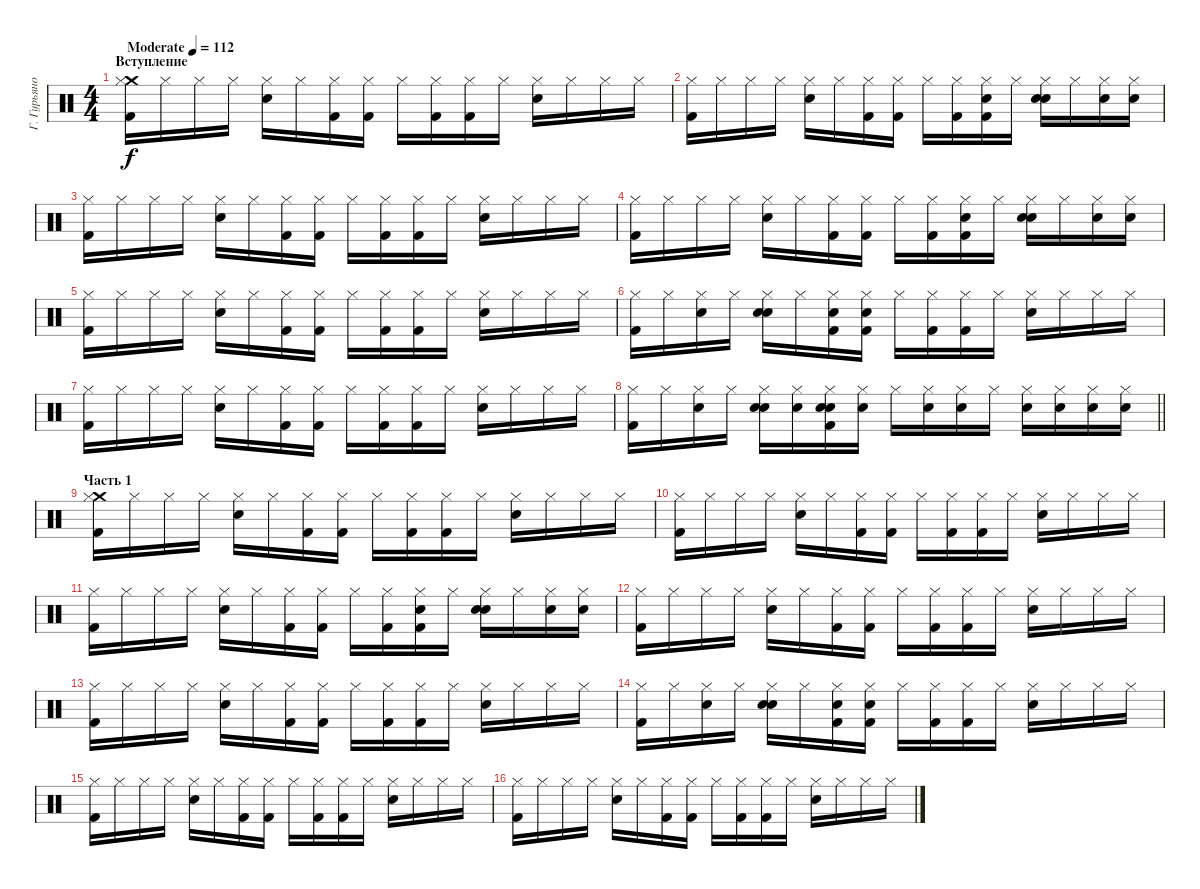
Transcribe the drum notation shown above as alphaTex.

\track ("Г. Гурьянов" "Г. Гурьяно") {instrument percussion}
\staff {score}
\articulation defaults
\ts (4 4)
\section ("" "Вступление")
\tempo (112 "Moderate")
\clef neutral
\ks c
("Kick (hit) 2" "Crash medium (hit)" "Hi-Hat (closed)").16{dy f} "Hi-Hat (closed)".16 "Hi-Hat (closed)".16 "Hi-Hat (closed)".16 ("Snare (hit) 2" "Hi-Hat (closed)").16 "Hi-Hat (closed)".16 ("Kick (hit) 2" "Hi-Hat (closed)").16 ("Kick (hit) 2" "Hi-Hat (closed)").16 "Hi-Hat (closed)".16 ("Kick (hit) 2" "Hi-Hat (closed)").16 ("Kick (hit) 2" "Hi-Hat (closed)").16 "Hi-Hat (closed)".16 ("Snare (hit) 2" "Hi-Hat (closed)").16 "Hi-Hat (closed)".16 "Hi-Hat (closed)".16 "Hi-Hat (closed)".16 |
("Kick (hit) 2" "Hi-Hat (closed)").16 "Hi-Hat (closed)".16 "Hi-Hat (closed)".16 "Hi-Hat (closed)".16 ("Snare (hit) 2" "Hi-Hat (closed)").16 "Hi-Hat (closed)".16 ("Kick (hit) 2" "Hi-Hat (closed)").16 ("Kick (hit) 2" "Hi-Hat (closed)").16 "Hi-Hat (closed)".16 ("Kick (hit) 2" "Hi-Hat (closed)").16 ("Kick (hit) 2" "Hand Clap (hit)" "Hi-Hat (closed)").16 "Hi-Hat (closed)".16 ("Snare (hit) 2" "Hand Clap (hit)" "Hi-Hat (closed)").16 "Hi-Hat (closed)".16 ("Hand Clap (hit)" "Hi-Hat (closed)").16 ("Hand Clap (hit)" "Hi-Hat (closed)").16 |
("Kick (hit) 2" "Hi-Hat (closed)").16 "Hi-Hat (closed)".16 "Hi-Hat (closed)".16 "Hi-Hat (closed)".16 ("Snare (hit) 2" "Hi-Hat (closed)").16 "Hi-Hat (closed)".16 ("Kick (hit) 2" "Hi-Hat (closed)").16 ("Kick (hit) 2" "Hi-Hat (closed)").16 "Hi-Hat (closed)".16 ("Kick (hit) 2" "Hi-Hat (closed)").16 ("Kick (hit) 2" "Hi-Hat (closed)").16 "Hi-Hat (closed)".16 ("Snare (hit) 2" "Hi-Hat (closed)").16 "Hi-Hat (closed)".16 "Hi-Hat (closed)".16 "Hi-Hat (closed)".16 |
("Kick (hit) 2" "Hi-Hat (closed)").16 "Hi-Hat (closed)".16 "Hi-Hat (closed)".16 "Hi-Hat (closed)".16 ("Snare (hit) 2" "Hi-Hat (closed)").16 "Hi-Hat (closed)".16 ("Kick (hit) 2" "Hi-Hat (closed)").16 ("Kick (hit) 2" "Hi-Hat (closed)").16 "Hi-Hat (closed)".16 ("Kick (hit) 2" "Hi-Hat (closed)").16 ("Kick (hit) 2" "Hand Clap (hit)" "Hi-Hat (closed)").16 "Hi-Hat (closed)".16 ("Snare (hit) 2" "Hand Clap (hit)" "Hi-Hat (closed)").16 "Hi-Hat (closed)".16 ("Hand Clap (hit)" "Hi-Hat (closed)").16 ("Hand Clap (hit)" "Hi-Hat (closed)").16 |
("Kick (hit) 2" "Hi-Hat (closed)").16 "Hi-Hat (closed)".16 "Hi-Hat (closed)".16 "Hi-Hat (closed)".16 ("Snare (hit) 2" "Hi-Hat (closed)").16 "Hi-Hat (closed)".16 ("Kick (hit) 2" "Hi-Hat (closed)").16 ("Kick (hit) 2" "Hi-Hat (closed)").16 "Hi-Hat (closed)".16 ("Kick (hit) 2" "Hi-Hat (closed)").16 ("Kick (hit) 2" "Hi-Hat (closed)").16 "Hi-Hat (closed)".16 ("Snare (hit) 2" "Hi-Hat (closed)").16 "Hi-Hat (closed)".16 "Hi-Hat (closed)".16 "Hi-Hat (closed)".16 |
("Kick (hit) 2" "Hi-Hat (closed)").16 "Hi-Hat (closed)".16 ("Hand Clap (hit)" "Hi-Hat (closed)").16 "Hi-Hat (closed)".16 ("Snare (hit) 2" "Hand Clap (hit)" "Hi-Hat (closed)").16 "Hi-Hat (closed)".16 ("Kick (hit) 2" "Hand Clap (hit)" "Hi-Hat (closed)").16 ("Kick (hit) 2" "Hand Clap (hit)" "Hi-Hat (closed)").16 "Hi-Hat (closed)".16 ("Kick (hit) 2" "Hi-Hat (closed)").16 ("Kick (hit) 2" "Hi-Hat (closed)").16 "Hi-Hat (closed)".16 ("Snare (hit) 2" "Hi-Hat (closed)").16 "Hi-Hat (closed)".16 "Hi-Hat (closed)".16 "Hi-Hat (closed)".16 |
("Kick (hit) 2" "Hi-Hat (closed)").16 "Hi-Hat (closed)".16 "Hi-Hat (closed)".16 "Hi-Hat (closed)".16 ("Snare (hit) 2" "Hi-Hat (closed)").16 "Hi-Hat (closed)".16 ("Kick (hit) 2" "Hi-Hat (closed)").16 ("Kick (hit) 2" "Hi-Hat (closed)").16 "Hi-Hat (closed)".16 ("Kick (hit) 2" "Hi-Hat (closed)").16 ("Kick (hit) 2" "Hi-Hat (closed)").16 "Hi-Hat (closed)".16 ("Snare (hit) 2" "Hi-Hat (closed)").16 "Hi-Hat (closed)".16 "Hi-Hat (closed)".16 "Hi-Hat (closed)".16 |
\barLineRight lightlight
("Kick (hit) 2" "Hi-Hat (closed)").16 "Hi-Hat (closed)".16 ("Hand Clap (hit)" "Hi-Hat (closed)").16 "Hi-Hat (closed)".16 ("Snare (hit) 2" "Hand Clap (hit)" "Hi-Hat (closed)").16 ("Snare (hit) 2" "Hi-Hat (closed)").16 ("Kick (hit) 2" "Snare (hit) 2" "Hand Clap (hit)" "Hi-Hat (closed)").16 ("Hand Clap (hit)" "Hi-Hat (closed)").16 "Hi-Hat (closed)".16 ("Snare (hit) 2" "Hi-Hat (closed)").16 ("Snare (hit) 2" "Hi-Hat (closed)").16 "Hi-Hat (closed)".16 ("Snare (hit) 2" "Hi-Hat (closed)").16 ("Snare (hit) 2" "Hi-Hat (closed)").16 ("Snare (hit) 2" "Hi-Hat (closed)").16 ("Snare (hit) 2" "Hi-Hat (closed)").16 |
\section ("" "Часть 1")
("Kick (hit) 2" "Crash medium (hit)" "Hi-Hat (closed)").16 "Hi-Hat (closed)".16 "Hi-Hat (closed)".16 "Hi-Hat (closed)".16 ("Snare (hit) 2" "Hi-Hat (closed)").16 "Hi-Hat (closed)".16 ("Kick (hit) 2" "Hi-Hat (closed)").16 ("Kick (hit) 2" "Hi-Hat (closed)").16 "Hi-Hat (closed)".16 ("Kick (hit) 2" "Hi-Hat (closed)").16 ("Kick (hit) 2" "Hi-Hat (closed)").16 "Hi-Hat (closed)".16 ("Snare (hit) 2" "Hi-Hat (closed)").16 "Hi-Hat (closed)".16 "Hi-Hat (closed)".16 "Hi-Hat (closed)".16 |
("Kick (hit) 2" "Hi-Hat (closed)").16 "Hi-Hat (closed)".16 "Hi-Hat (closed)".16 "Hi-Hat (closed)".16 ("Snare (hit) 2" "Hi-Hat (closed)").16 "Hi-Hat (closed)".16 ("Kick (hit) 2" "Hi-Hat (closed)").16 ("Kick (hit) 2" "Hi-Hat (closed)").16 "Hi-Hat (closed)".16 ("Kick (hit) 2" "Hi-Hat (closed)").16 ("Kick (hit) 2" "Hi-Hat (closed)").16 "Hi-Hat (closed)".16 ("Snare (hit) 2" "Hi-Hat (closed)").16 "Hi-Hat (closed)".16 "Hi-Hat (closed)".16 "Hi-Hat (closed)".16 |
("Kick (hit) 2" "Hi-Hat (closed)").16 "Hi-Hat (closed)".16 "Hi-Hat (closed)".16 "Hi-Hat (closed)".16 ("Snare (hit) 2" "Hi-Hat (closed)").16 "Hi-Hat (closed)".16 ("Kick (hit) 2" "Hi-Hat (closed)").16 ("Kick (hit) 2" "Hi-Hat (closed)").16 "Hi-Hat (closed)".16 ("Kick (hit) 2" "Hi-Hat (closed)").16 ("Kick (hit) 2" "Hand Clap (hit)" "Hi-Hat (closed)").16 "Hi-Hat (closed)".16 ("Snare (hit) 2" "Hand Clap (hit)" "Hi-Hat (closed)").16 "Hi-Hat (closed)".16 ("Hand Clap (hit)" "Hi-Hat (closed)").16 ("Hand Clap (hit)" "Hi-Hat (closed)").16 |
("Kick (hit) 2" "Hi-Hat (closed)").16 "Hi-Hat (closed)".16 "Hi-Hat (closed)".16 "Hi-Hat (closed)".16 ("Snare (hit) 2" "Hi-Hat (closed)").16 "Hi-Hat (closed)".16 ("Kick (hit) 2" "Hi-Hat (closed)").16 ("Kick (hit) 2" "Hi-Hat (closed)").16 "Hi-Hat (closed)".16 ("Kick (hit) 2" "Hi-Hat (closed)").16 ("Kick (hit) 2" "Hi-Hat (closed)").16 "Hi-Hat (closed)".16 ("Snare (hit) 2" "Hi-Hat (closed)").16 "Hi-Hat (closed)".16 "Hi-Hat (closed)".16 "Hi-Hat (closed)".16 |
("Kick (hit) 2" "Hi-Hat (closed)").16 "Hi-Hat (closed)".16 "Hi-Hat (closed)".16 "Hi-Hat (closed)".16 ("Snare (hit) 2" "Hi-Hat (closed)").16 "Hi-Hat (closed)".16 ("Kick (hit) 2" "Hi-Hat (closed)").16 ("Kick (hit) 2" "Hi-Hat (closed)").16 "Hi-Hat (closed)".16 ("Kick (hit) 2" "Hi-Hat (closed)").16 ("Kick (hit) 2" "Hi-Hat (closed)").16 "Hi-Hat (closed)".16 ("Snare (hit) 2" "Hi-Hat (closed)").16 "Hi-Hat (closed)".16 "Hi-Hat (closed)".16 "Hi-Hat (closed)".16 |
("Kick (hit) 2" "Hi-Hat (closed)").16 "Hi-Hat (closed)".16 ("Hand Clap (hit)" "Hi-Hat (closed)").16 "Hi-Hat (closed)".16 ("Snare (hit) 2" "Hand Clap (hit)" "Hi-Hat (closed)").16 "Hi-Hat (closed)".16 ("Kick (hit) 2" "Hand Clap (hit)" "Hi-Hat (closed)").16 ("Kick (hit) 2" "Hand Clap (hit)" "Hi-Hat (closed)").16 "Hi-Hat (closed)".16 ("Kick (hit) 2" "Hi-Hat (closed)").16 ("Kick (hit) 2" "Hi-Hat (closed)").16 "Hi-Hat (closed)".16 ("Snare (hit) 2" "Hi-Hat (closed)").16 "Hi-Hat (closed)".16 "Hi-Hat (closed)".16 "Hi-Hat (closed)".16 |
("Kick (hit) 2" "Hi-Hat (closed)").16 "Hi-Hat (closed)".16 "Hi-Hat (closed)".16 "Hi-Hat (closed)".16 ("Snare (hit) 2" "Hi-Hat (closed)").16 "Hi-Hat (closed)".16 ("Kick (hit) 2" "Hi-Hat (closed)").16 ("Kick (hit) 2" "Hi-Hat (closed)").16 "Hi-Hat (closed)".16 ("Kick (hit) 2" "Hi-Hat (closed)").16 ("Kick (hit) 2" "Hi-Hat (closed)").16 "Hi-Hat (closed)".16 ("Snare (hit) 2" "Hi-Hat (closed)").16 "Hi-Hat (closed)".16 "Hi-Hat (closed)".16 "Hi-Hat (closed)".16 |
("Kick (hit) 2" "Hi-Hat (closed)").16 "Hi-Hat (closed)".16 "Hi-Hat (closed)".16 "Hi-Hat (closed)".16 ("Snare (hit) 2" "Hi-Hat (closed)").16 "Hi-Hat (closed)".16 ("Kick (hit) 2" "Hi-Hat (closed)").16 ("Kick (hit) 2" "Hi-Hat (closed)").16 "Hi-Hat (closed)".16 ("Kick (hit) 2" "Hi-Hat (closed)").16 ("Kick (hit) 2" "Hi-Hat (closed)").16 "Hi-Hat (closed)".16 ("Snare (hit) 2" "Hi-Hat (closed)").16 "Hi-Hat (closed)".16 "Hi-Hat (closed)".16 "Hi-Hat (closed)".16
